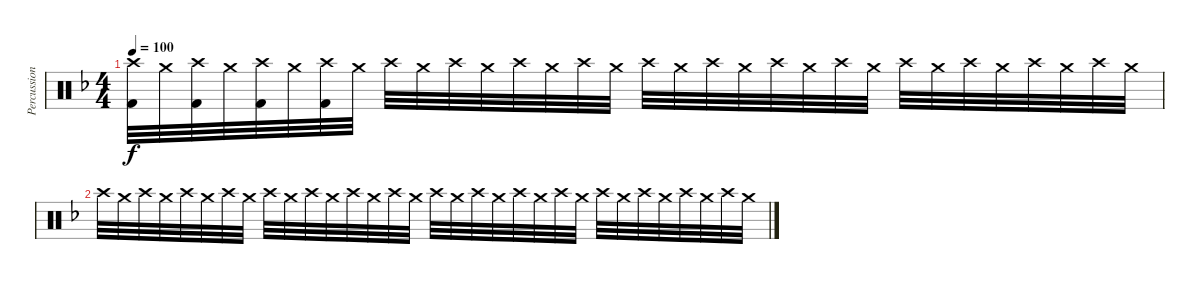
\track ("Percussion" "Percussion") {instrument percussion}
\staff {score}
\articulation defaults
\ts (4 4)
\tempo 100
\clef neutral
\ks dminor
("Crash high (hit)" "Kick (hit) 2").32{dy f} "Crash medium (hit)".32 ("Crash high (hit)" "Kick (hit) 2").32 "Crash medium (hit)".32 ("Crash high (hit)" "Kick (hit) 2").32 "Crash medium (hit)".32 ("Crash high (hit)" "Kick (hit) 2").32 "Crash medium (hit)".32 "Crash high (hit)".32 "Crash medium (hit)".32 "Crash high (hit)".32 "Crash medium (hit)".32 "Crash high (hit)".32 "Crash medium (hit)".32 "Crash high (hit)".32 "Crash medium (hit)".32 "Crash high (hit)".32 "Crash medium (hit)".32 "Crash high (hit)".32 "Crash medium (hit)".32 "Crash high (hit)".32 "Crash medium (hit)".32 "Crash high (hit)".32 "Crash medium (hit)".32 "Crash high (hit)".32 "Crash medium (hit)".32 "Crash high (hit)".32 "Crash medium (hit)".32 "Crash high (hit)".32 "Crash medium (hit)".32 "Crash high (hit)".32 "Crash medium (hit)".32 |
"Crash high (hit)".32 "Crash medium (hit)".32 "Crash high (hit)".32 "Crash medium (hit)".32 "Crash high (hit)".32 "Crash medium (hit)".32 "Crash high (hit)".32 "Crash medium (hit)".32 "Crash high (hit)".32 "Crash medium (hit)".32 "Crash high (hit)".32 "Crash medium (hit)".32 "Crash high (hit)".32 "Crash medium (hit)".32 "Crash high (hit)".32 "Crash medium (hit)".32 "Crash high (hit)".32 "Crash medium (hit)".32 "Crash high (hit)".32 "Crash medium (hit)".32 "Crash high (hit)".32 "Crash medium (hit)".32 "Crash high (hit)".32 "Crash medium (hit)".32 "Crash high (hit)".32 "Crash medium (hit)".32 "Crash high (hit)".32 "Crash medium (hit)".32 "Crash high (hit)".32 "Crash medium (hit)".32 "Crash high (hit)".32 "Crash medium (hit)".32
